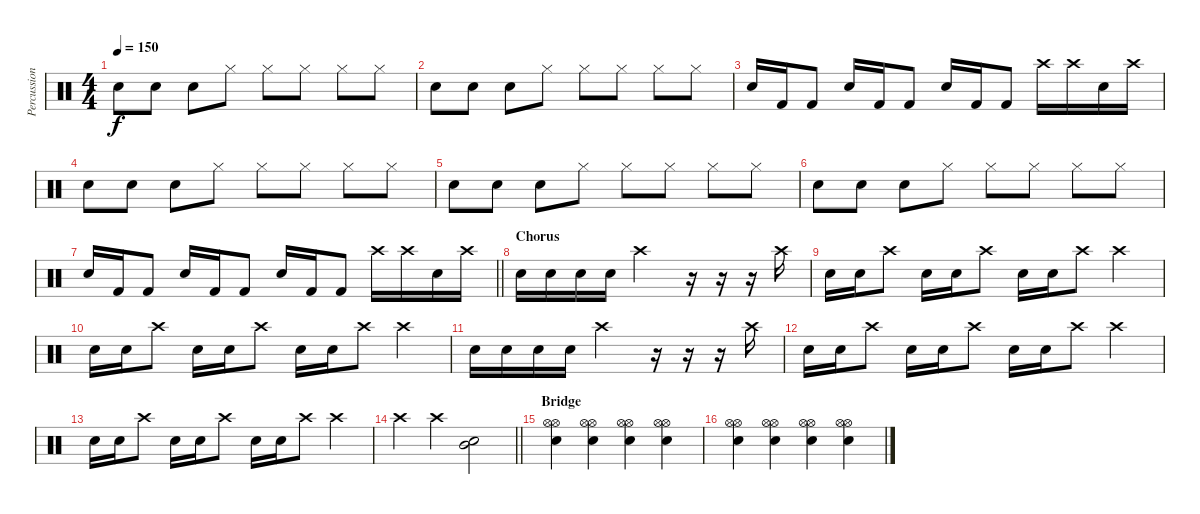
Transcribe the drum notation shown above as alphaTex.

\track ("Percussion" "Percussion") {instrument percussion}
\staff {score}
\articulation defaults
\ts (4 4)
\tempo 150
\clef neutral
\ks c "Electric Snare (hit)".8{dy f} "Electric Snare (hit)".8 "Electric Snare (hit)".8 "Hi-Hat (closed)".8 "Hi-Hat (closed)".8 "Hi-Hat (closed)".8 "Hi-Hat (closed)".8 "Hi-Hat (closed)".8
|
"Electric Snare (hit)".8 "Electric Snare (hit)".8 "Electric Snare (hit)".8 "Hi-Hat (closed)".8 "Hi-Hat (closed)".8 "Hi-Hat (closed)".8 "Hi-Hat (closed)".8 "Hi-Hat (closed)".8 |
"Electric Snare (hit)".16 "Kick (hit) 2".16 "Kick (hit) 2".8 "Electric Snare (hit)".16 "Kick (hit) 2".16 "Kick (hit) 2".8 "Electric Snare (hit)".16 "Kick (hit) 2".16 "Kick (hit) 2".8 "Crash high (hit)".16 "Crash high (hit)".16 "Snare (hit) 2".16 "Crash high (hit)".16 |
"Electric Snare (hit)".8 "Electric Snare (hit)".8 "Electric Snare (hit)".8 "Hi-Hat (closed)".8 "Hi-Hat (closed)".8 "Hi-Hat (closed)".8 "Hi-Hat (closed)".8 "Hi-Hat (closed)".8 |
"Electric Snare (hit)".8 "Electric Snare (hit)".8 "Electric Snare (hit)".8 "Hi-Hat (closed)".8 "Hi-Hat (closed)".8 "Hi-Hat (closed)".8 "Hi-Hat (closed)".8 "Hi-Hat (closed)".8 |
"Electric Snare (hit)".8 "Electric Snare (hit)".8 "Electric Snare (hit)".8 "Hi-Hat (closed)".8 "Hi-Hat (closed)".8 "Hi-Hat (closed)".8 "Hi-Hat (closed)".8 "Hi-Hat (closed)".8 |
\barLineRight lightlight "Electric Snare (hit)".16 "Kick (hit) 2".16 "Kick (hit) 2".8 "Electric Snare (hit)".16 "Kick (hit) 2".16 "Kick (hit) 2".8 "Electric Snare (hit)".16 "Kick (hit) 2".16 "Kick (hit) 2".8 "Crash high (hit)".16 "Crash high (hit)".16 "Snare (hit) 2".16 "Crash high (hit)".16
|
\section ("" "Chorus ")
"Snare (hit) 2".16 "Snare (hit) 2".16 "Snare (hit) 2".16 "Snare (hit) 2".16 "Crash high (hit)".2 r.16 r.16 r.16 "Crash high (hit)".16 |
"Snare (hit) 2".16 "Electric Snare (hit)".16 "Crash high (hit)".8 "Snare (hit) 2".16 "Electric Snare (hit)".16 "Crash high (hit)".8 "Snare (hit) 2".16 "Electric Snare (hit)".16 "Crash high (hit)".8 "Crash high (hit)".4 |
"Snare (hit) 2".16 "Electric Snare (hit)".16 "Crash high (hit)".8 "Snare (hit) 2".16 "Electric Snare (hit)".16 "Crash high (hit)".8 "Snare (hit) 2".16 "Electric Snare (hit)".16 "Crash high (hit)".8 "Crash high (hit)".4 |
"Snare (hit) 2".16 "Snare (hit) 2".16 "Snare (hit) 2".16 "Snare (hit) 2".16 "Crash high (hit)".2 r.16 r.16 r.16 "Crash high (hit)".16 |
"Snare (hit) 2".16 "Electric Snare (hit)".16 "Crash high (hit)".8 "Snare (hit) 2".16 "Electric Snare (hit)".16 "Crash high (hit)".8 "Snare (hit) 2".16 "Electric Snare (hit)".16 "Crash high (hit)".8 "Crash high (hit)".4 |
"Snare (hit) 2".16 "Electric Snare (hit)".16 "Crash high (hit)".8 "Snare (hit) 2".16 "Electric Snare (hit)".16 "Crash high (hit)".8 "Snare (hit) 2".16 "Electric Snare (hit)".16 "Crash high (hit)".8 "Crash high (hit)".4 |
\barLineRight lightlight "Crash high (hit)".4 "Crash high (hit)".4
("Electric Snare (hit)" "Mid Tom (hit)").2 |
\section ("" "Bridge")
("Hi-Hat (open)" "Hi-Hat (open)" "Snare (hit) 2").4 ("Hi-Hat (open)" "Hi-Hat (open)" "Snare (hit) 2").4 ("Hi-Hat (open)" "Hi-Hat (open)" "Snare (hit) 2").4 ("Hi-Hat (open)" "Hi-Hat (open)" "Snare (hit) 2").4 |
("Hi-Hat (open)" "Hi-Hat (open)" "Snare (hit) 2").4 ("Hi-Hat (open)" "Hi-Hat (open)" "Snare (hit) 2").4 ("Hi-Hat (open)" "Hi-Hat (open)" "Snare (hit) 2").4 ("Hi-Hat (open)" "Hi-Hat (open)" "Snare (hit) 2").4
